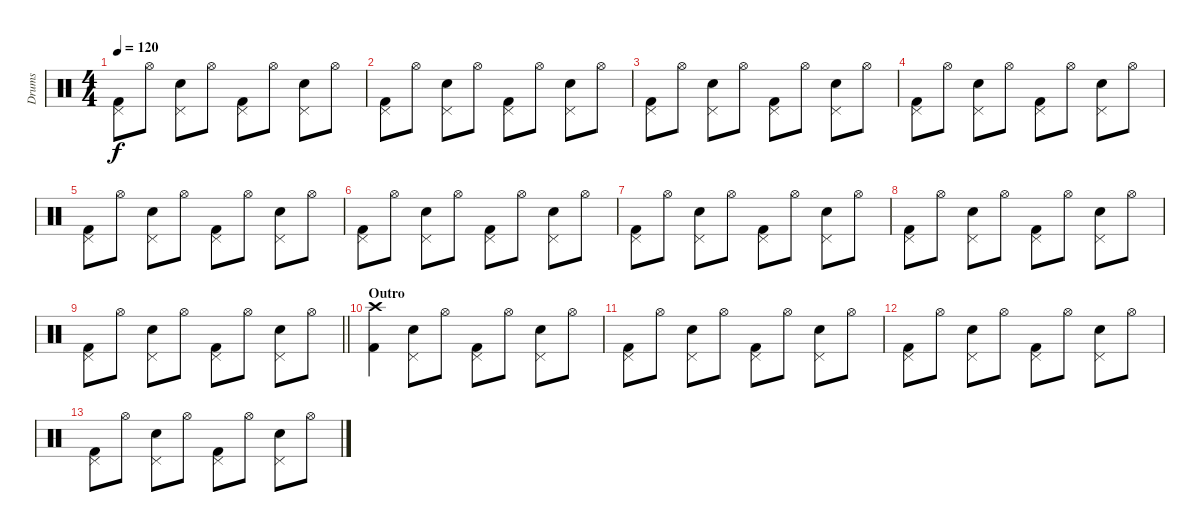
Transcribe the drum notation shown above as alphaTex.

\track ("Drums" "Drums") {instrument percussion}
\staff {score}
\articulation defaults
\ts (4 4)
\tempo 120
\clef neutral
\ks c
("Pedal Hi-Hat (hit)" "Kick (hit) 2").8{dy f} "Hi-Hat (open)".8 ("Pedal Hi-Hat (hit)" "Electric Snare (hit)").8 "Hi-Hat (open)".8 ("Pedal Hi-Hat (hit)" "Kick (hit) 2").8 "Hi-Hat (open)".8 ("Pedal Hi-Hat (hit)" "Electric Snare (hit)").8 "Hi-Hat (open)".8 |
("Pedal Hi-Hat (hit)" "Kick (hit) 2").8 "Hi-Hat (open)".8 ("Pedal Hi-Hat (hit)" "Electric Snare (hit)").8 "Hi-Hat (open)".8 ("Pedal Hi-Hat (hit)" "Kick (hit) 2").8 "Hi-Hat (open)".8 ("Pedal Hi-Hat (hit)" "Electric Snare (hit)").8 "Hi-Hat (open)".8 |
("Pedal Hi-Hat (hit)" "Kick (hit) 2").8 "Hi-Hat (open)".8 ("Pedal Hi-Hat (hit)" "Electric Snare (hit)").8 "Hi-Hat (open)".8 ("Pedal Hi-Hat (hit)" "Kick (hit) 2").8 "Hi-Hat (open)".8 ("Pedal Hi-Hat (hit)" "Electric Snare (hit)").8 "Hi-Hat (open)".8 |
("Pedal Hi-Hat (hit)" "Kick (hit) 2").8 "Hi-Hat (open)".8 ("Pedal Hi-Hat (hit)" "Electric Snare (hit)").8 "Hi-Hat (open)".8 ("Pedal Hi-Hat (hit)" "Kick (hit) 2").8 "Hi-Hat (open)".8 ("Pedal Hi-Hat (hit)" "Electric Snare (hit)").8 "Hi-Hat (open)".8 |
("Pedal Hi-Hat (hit)" "Kick (hit) 2").8 "Hi-Hat (open)".8 ("Pedal Hi-Hat (hit)" "Electric Snare (hit)").8 "Hi-Hat (open)".8 ("Pedal Hi-Hat (hit)" "Kick (hit) 2").8 "Hi-Hat (open)".8 ("Pedal Hi-Hat (hit)" "Electric Snare (hit)").8 "Hi-Hat (open)".8 |
("Pedal Hi-Hat (hit)" "Kick (hit) 2").8 "Hi-Hat (open)".8 ("Pedal Hi-Hat (hit)" "Electric Snare (hit)").8 "Hi-Hat (open)".8 ("Pedal Hi-Hat (hit)" "Kick (hit) 2").8 "Hi-Hat (open)".8 ("Pedal Hi-Hat (hit)" "Electric Snare (hit)").8 "Hi-Hat (open)".8 |
("Pedal Hi-Hat (hit)" "Kick (hit) 2").8 "Hi-Hat (open)".8 ("Pedal Hi-Hat (hit)" "Electric Snare (hit)").8 "Hi-Hat (open)".8 ("Pedal Hi-Hat (hit)" "Kick (hit) 2").8 "Hi-Hat (open)".8 ("Pedal Hi-Hat (hit)" "Electric Snare (hit)").8 "Hi-Hat (open)".8 |
("Pedal Hi-Hat (hit)" "Kick (hit) 2").8 "Hi-Hat (open)".8 ("Pedal Hi-Hat (hit)" "Electric Snare (hit)").8 "Hi-Hat (open)".8 ("Pedal Hi-Hat (hit)" "Kick (hit) 2").8 "Hi-Hat (open)".8 ("Pedal Hi-Hat (hit)" "Electric Snare (hit)").8 "Hi-Hat (open)".8 |
\barLineRight lightlight
("Pedal Hi-Hat (hit)" "Kick (hit) 2").8 "Hi-Hat (open)".8 ("Pedal Hi-Hat (hit)" "Electric Snare (hit)").8 "Hi-Hat (open)".8 ("Pedal Hi-Hat (hit)" "Kick (hit) 2").8 "Hi-Hat (open)".8 ("Pedal Hi-Hat (hit)" "Electric Snare (hit)").8 "Hi-Hat (open)".8 |
\section ("" "Outro")
("Crash high (hit)" "Kick (hit) 2").4 ("Pedal Hi-Hat (hit)" "Electric Snare (hit)").8 "Hi-Hat (open)".8 ("Pedal Hi-Hat (hit)" "Kick (hit) 2").8 "Hi-Hat (open)".8 ("Pedal Hi-Hat (hit)" "Electric Snare (hit)").8 "Hi-Hat (open)".8 |
("Pedal Hi-Hat (hit)" "Kick (hit) 2").8 "Hi-Hat (open)".8 ("Pedal Hi-Hat (hit)" "Electric Snare (hit)").8 "Hi-Hat (open)".8 ("Pedal Hi-Hat (hit)" "Kick (hit) 2").8 "Hi-Hat (open)".8 ("Pedal Hi-Hat (hit)" "Electric Snare (hit)").8 "Hi-Hat (open)".8 |
("Pedal Hi-Hat (hit)" "Kick (hit) 2").8{volume 0} "Hi-Hat (open)".8 ("Pedal Hi-Hat (hit)" "Electric Snare (hit)").8 "Hi-Hat (open)".8 ("Pedal Hi-Hat (hit)" "Kick (hit) 2").8 "Hi-Hat (open)".8 ("Pedal Hi-Hat (hit)" "Electric Snare (hit)").8 "Hi-Hat (open)".8 |
("Pedal Hi-Hat (hit)" "Kick (hit) 2").8 "Hi-Hat (open)".8 ("Pedal Hi-Hat (hit)" "Electric Snare (hit)").8 "Hi-Hat (open)".8 ("Pedal Hi-Hat (hit)" "Kick (hit) 2").8 "Hi-Hat (open)".8 ("Pedal Hi-Hat (hit)" "Electric Snare (hit)").8 "Hi-Hat (open)".8
